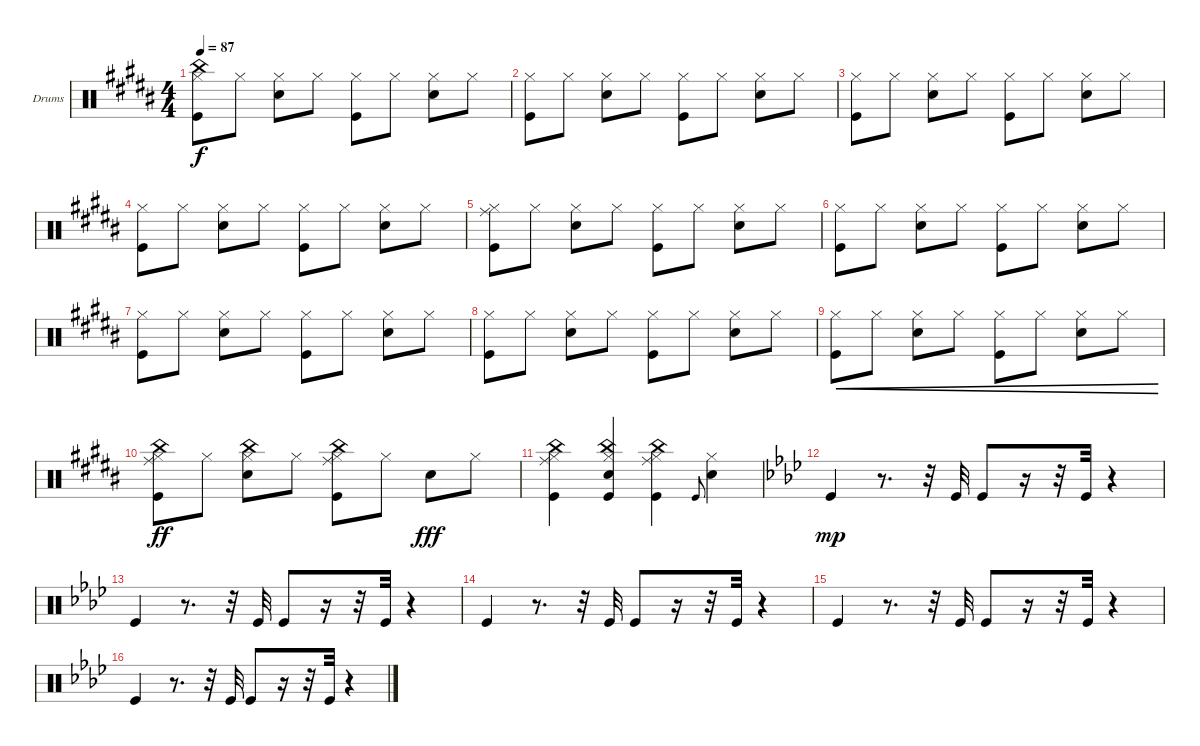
\defaultSystemsLayout 4
\bracketExtendMode groupsimilarinstruments
\firstSystemTrackNameOrientation horizontal
\otherSystemsTrackNameOrientation horizontal
\track ("Drumkit" "Drums") {instrument percussion}
\staff {score}
\articulation defaults
\ts (4 4)
\tempo 87
\clef neutral
\ks b
("Kick (hit)" "Hi-Hat (closed)" "China (hit)").8{dy f} "Hi-Hat (closed)".8 ("Snare (hit) 2" "Hi-Hat (closed)").8 "Hi-Hat (closed)".8 ("Kick (hit)" "Hi-Hat (closed)").8 "Hi-Hat (closed)".8 ("Snare (hit) 2" "Hi-Hat (closed)").8 "Hi-Hat (closed)".8 |
("Kick (hit)" "Hi-Hat (closed)").8 "Hi-Hat (closed)".8 ("Snare (hit) 2" "Hi-Hat (closed)").8 "Hi-Hat (closed)".8 ("Kick (hit)" "Hi-Hat (closed)").8 "Hi-Hat (closed)".8 ("Snare (hit) 2" "Hi-Hat (closed)").8 "Hi-Hat (closed)".8 |
("Kick (hit)" "Hi-Hat (closed)").8 "Hi-Hat (closed)".8 ("Snare (hit) 2" "Hi-Hat (closed)").8 "Hi-Hat (closed)".8 ("Kick (hit)" "Hi-Hat (closed)").8 "Hi-Hat (closed)".8 ("Snare (hit) 2" "Hi-Hat (closed)").8 "Hi-Hat (closed)".8 |
("Kick (hit)" "Hi-Hat (closed)").8 "Hi-Hat (closed)".8 ("Snare (hit) 2" "Hi-Hat (closed)").8 "Hi-Hat (closed)".8 ("Kick (hit)" "Hi-Hat (closed)").8 "Hi-Hat (closed)".8 ("Snare (hit) 2" "Hi-Hat (closed)").8 "Hi-Hat (closed)".8 |
("Kick (hit)" "Hi-Hat (closed)" "Ride (middle)").8 "Hi-Hat (closed)".8 ("Snare (hit) 2" "Hi-Hat (closed)").8 "Hi-Hat (closed)".8 ("Kick (hit)" "Hi-Hat (closed)").8 "Hi-Hat (closed)".8 ("Snare (hit) 2" "Hi-Hat (closed)").8 "Hi-Hat (closed)".8 |
("Kick (hit)" "Hi-Hat (closed)").8 "Hi-Hat (closed)".8 ("Snare (hit) 2" "Hi-Hat (closed)").8 "Hi-Hat (closed)".8 ("Kick (hit)" "Hi-Hat (closed)").8 "Hi-Hat (closed)".8 ("Snare (hit) 2" "Hi-Hat (closed)").8 "Hi-Hat (closed)".8 |
("Kick (hit)" "Hi-Hat (closed)").8 "Hi-Hat (closed)".8 ("Snare (hit) 2" "Hi-Hat (closed)").8 "Hi-Hat (closed)".8 ("Kick (hit)" "Hi-Hat (closed)").8 "Hi-Hat (closed)".8 ("Snare (hit) 2" "Hi-Hat (closed)").8 "Hi-Hat (closed)".8 |
("Kick (hit)" "Hi-Hat (closed)").8 "Hi-Hat (closed)".8 ("Snare (hit) 2" "Hi-Hat (closed)").8 "Hi-Hat (closed)".8 ("Kick (hit)" "Hi-Hat (closed)").8 "Hi-Hat (closed)".8 ("Snare (hit) 2" "Hi-Hat (closed)").8 "Hi-Hat (closed)".8 |
("Kick (hit)" "Hi-Hat (closed)").8{cre} "Hi-Hat (closed)".8{cre} ("Snare (hit) 2" "Hi-Hat (closed)").8{cre} "Hi-Hat (closed)".8{cre} ("Kick (hit)" "Hi-Hat (closed)").8{cre} "Hi-Hat (closed)".8{cre} ("Snare (hit) 2" "Hi-Hat (closed)").8{cre} "Hi-Hat (closed)".8{cre} |
("Kick (hit)" "Hi-Hat (closed)" "China (hit)" "Ride (middle)").8{dy ff} "Hi-Hat (closed)".8 ("Snare (hit) 2" "Hi-Hat (closed)" "China (hit)").8 "Hi-Hat (closed)".8 ("Kick (hit)" "Hi-Hat (closed)" "China (hit)" "Ride (middle)").8 "Hi-Hat (closed)".8 "Snare (hit) 2".8{dy fff} "Hi-Hat (closed)".8 |
("Kick (hit)" "Hi-Hat (closed)" "China (hit)" "Ride (middle)").4 ("Snare (hit) 2" "Hi-Hat (closed)" "China (hit)" "Kick (hit)").4 ("Kick (hit)" "Hi-Hat (closed)" "China (hit)" "Ride (middle)").4 "Kick (hit)".8{gr onbeat} ("Snare (hit) 2" "Hi-Hat (closed)").4 |
\ks ab "Kick (hit)".4{dy mp}
r.8{d} r.32 "Kick (hit)".32 "Kick (hit)".8 r.16 r.32 "Kick (hit)".32 r.4 |
"Kick (hit)".4 r.8{d} r.32 "Kick (hit)".32 "Kick (hit)".8 r.16 r.32 "Kick (hit)".32 r.4 |
"Kick (hit)".4 r.8{d} r.32 "Kick (hit)".32 "Kick (hit)".8 r.16 r.32 "Kick (hit)".32 r.4 |
"Kick (hit)".4 r.8{d} r.32 "Kick (hit)".32 "Kick (hit)".8 r.16 r.32 "Kick (hit)".32 r.4 |
"Kick (hit)".4 r.8{d} r.32 "Kick (hit)".32 "Kick (hit)".8 r.16 r.32 "Kick (hit)".32 r.4
